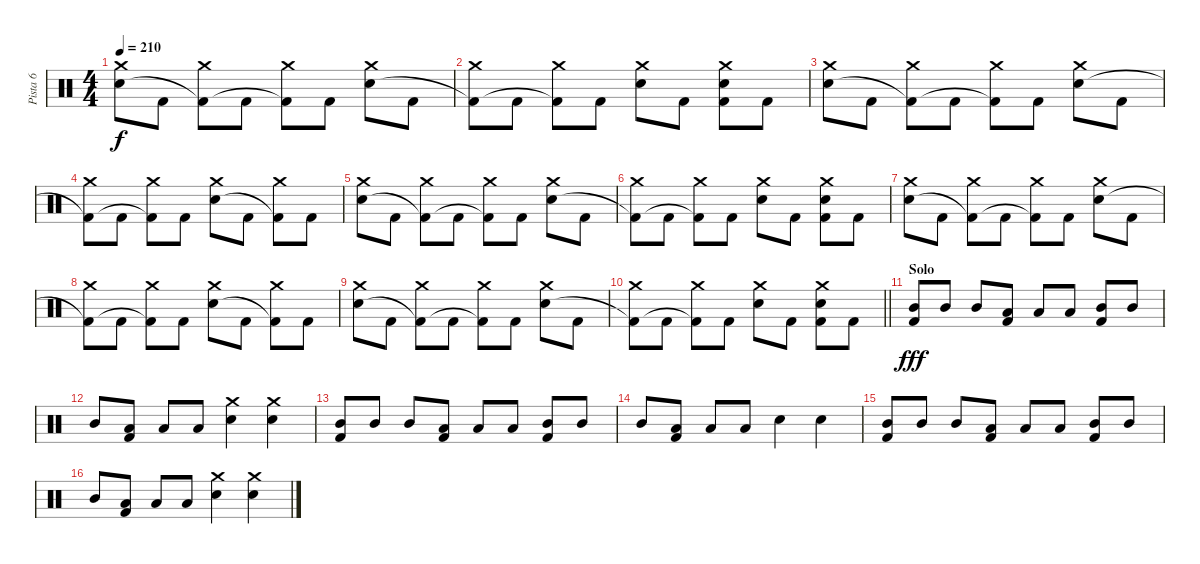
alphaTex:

\track ("Pista 6" "Pista 6") {instrument percussion}
\staff {score}
\articulation defaults
\ts (4 4)
\tempo 210
\clef neutral
\ks c
("Crash medium (hit)" "Electric Snare (hit)").8{dy f} "Kick (hit) 2".8 ("Crash medium (hit)" "Kick (hit) 2"{t}).8 "Kick (hit) 2".8 ("Crash medium (hit)" "Kick (hit) 2"{t}).8 "Kick (hit) 2".8 ("Crash medium (hit)" "Electric Snare (hit)").8 "Kick (hit) 2".8 |
("Crash medium (hit)" "Kick (hit) 2"{t}).8 "Kick (hit) 2".8 ("Crash medium (hit)" "Kick (hit) 2"{t}).8 "Kick (hit) 2".8 ("Crash medium (hit)" "Electric Snare (hit)").8 "Kick (hit) 2".8 ("Crash medium (hit)" "Electric Snare (hit)" "Kick (hit) 2").8 "Kick (hit) 2".8 |
("Crash medium (hit)" "Electric Snare (hit)").8 "Kick (hit) 2".8 ("Crash medium (hit)" "Kick (hit) 2"{t}).8 "Kick (hit) 2".8 ("Crash medium (hit)" "Kick (hit) 2"{t}).8 "Kick (hit) 2".8 ("Crash medium (hit)" "Electric Snare (hit)").8 "Kick (hit) 2".8 |
("Crash medium (hit)" "Kick (hit) 2"{t}).8 "Kick (hit) 2".8 ("Crash medium (hit)" "Kick (hit) 2"{t}).8 "Kick (hit) 2".8 ("Crash medium (hit)" "Electric Snare (hit)").8 "Kick (hit) 2".8 ("Crash medium (hit)" "Kick (hit) 2"{t}).8 "Kick (hit) 2".8 |
("Crash medium (hit)" "Electric Snare (hit)").8 "Kick (hit) 2".8 ("Crash medium (hit)" "Kick (hit) 2"{t}).8 "Kick (hit) 2".8 ("Crash medium (hit)" "Kick (hit) 2"{t}).8 "Kick (hit) 2".8 ("Crash medium (hit)" "Electric Snare (hit)").8 "Kick (hit) 2".8 |
("Crash medium (hit)" "Kick (hit) 2"{t}).8 "Kick (hit) 2".8 ("Crash medium (hit)" "Kick (hit) 2"{t}).8 "Kick (hit) 2".8 ("Crash medium (hit)" "Electric Snare (hit)").8 "Kick (hit) 2".8 ("Crash medium (hit)" "Electric Snare (hit)" "Kick (hit) 2").8 "Kick (hit) 2".8 |
("Crash medium (hit)" "Electric Snare (hit)").8 "Kick (hit) 2".8 ("Crash medium (hit)" "Kick (hit) 2"{t}).8 "Kick (hit) 2".8 ("Crash medium (hit)" "Kick (hit) 2"{t}).8 "Kick (hit) 2".8 ("Crash medium (hit)" "Electric Snare (hit)").8 "Kick (hit) 2".8 |
("Crash medium (hit)" "Kick (hit) 2"{t}).8 "Kick (hit) 2".8 ("Crash medium (hit)" "Kick (hit) 2"{t}).8 "Kick (hit) 2".8 ("Crash medium (hit)" "Electric Snare (hit)").8 "Kick (hit) 2".8 ("Crash medium (hit)" "Kick (hit) 2"{t}).8 "Kick (hit) 2".8 |
("Crash medium (hit)" "Electric Snare (hit)").8 "Kick (hit) 2".8 ("Crash medium (hit)" "Kick (hit) 2"{t}).8 "Kick (hit) 2".8 ("Crash medium (hit)" "Kick (hit) 2"{t}).8 "Kick (hit) 2".8 ("Crash medium (hit)" "Electric Snare (hit)").8 "Kick (hit) 2".8 |
\barLineRight lightlight
("Crash medium (hit)" "Kick (hit) 2"{t}).8 "Kick (hit) 2".8 ("Crash medium (hit)" "Kick (hit) 2"{t}).8 "Kick (hit) 2".8 ("Crash medium (hit)" "Electric Snare (hit)").8 "Kick (hit) 2".8 ("Crash medium (hit)" "Electric Snare (hit)" "Kick (hit) 2").8 "Kick (hit) 2".8 |
\section ("" "Solo")
("Mid Tom (hit)" "Kick (hit) 2").8{dy fff} "Mid Tom (hit)".8 "Mid Tom (hit)".8 ("Low Tom (hit)" "Kick (hit) 2").8 "Low Tom (hit)".8 "Low Tom (hit)".8 ("Mid Tom (hit)" "Kick (hit) 2").8 "Mid Tom (hit)".8 |
"Mid Tom (hit)".8 ("Low Tom (hit)" "Kick (hit) 2").8 "Low Tom (hit)".8 "Low Tom (hit)".8 ("Crash medium (hit)" "Electric Snare (hit)").4 ("Crash medium (hit)" "Electric Snare (hit)").4 |
("Mid Tom (hit)" "Kick (hit) 2").8 "Mid Tom (hit)".8 "Mid Tom (hit)".8 ("Low Tom (hit)" "Kick (hit) 2").8 "Low Tom (hit)".8 "Low Tom (hit)".8 ("Mid Tom (hit)" "Kick (hit) 2").8 "Mid Tom (hit)".8 |
"Mid Tom (hit)".8 ("Low Tom (hit)" "Kick (hit) 2").8 "Low Tom (hit)".8 "Low Tom (hit)".8 "Electric Snare (hit)".4 "Electric Snare (hit)".4 |
("Mid Tom (hit)" "Kick (hit) 2").8 "Mid Tom (hit)".8 "Mid Tom (hit)".8 ("Low Tom (hit)" "Kick (hit) 2").8 "Low Tom (hit)".8 "Low Tom (hit)".8 ("Mid Tom (hit)" "Kick (hit) 2").8 "Mid Tom (hit)".8 |
"Mid Tom (hit)".8 ("Low Tom (hit)" "Kick (hit) 2").8 "Low Tom (hit)".8 "Low Tom (hit)".8 ("Crash medium (hit)" "Electric Snare (hit)").4 ("Crash medium (hit)" "Electric Snare (hit)").4
